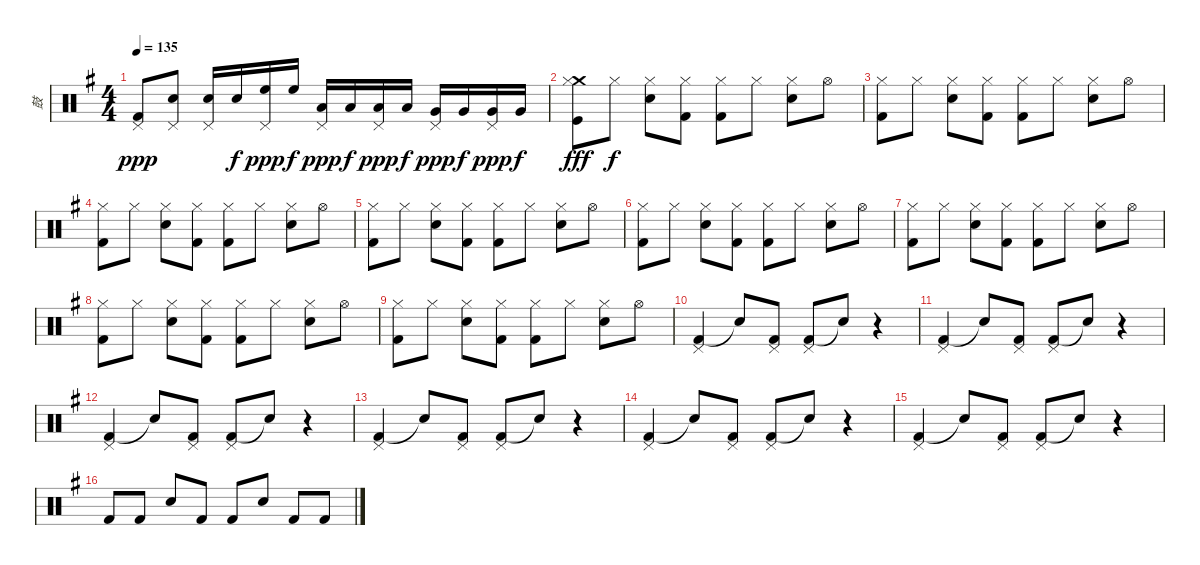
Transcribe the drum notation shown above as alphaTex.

\track ("鼓" "鼓") {instrument percussion}
\staff {score}
\articulation defaults
\ts (4 4)
\tempo 135
\clef neutral
\ks g
("Kick (hit) 2" "Pedal Hi-Hat (hit)").8{dy ppp} ("Snare (hit) 2" "Pedal Hi-Hat (hit)").8 ("Snare (hit) 2" "Pedal Hi-Hat (hit)").16 "Snare (hit) 2".16{dy f} ("High Floor Tom (hit)" "Pedal Hi-Hat (hit)").16{dy ppp} "High Floor Tom (hit)".16{dy f} ("Low Tom (hit)" "Pedal Hi-Hat (hit)").16{dy ppp} "Low Tom (hit)".16{dy f} ("Low Tom (hit)" "Pedal Hi-Hat (hit)").16{dy ppp} "Low Tom (hit)".16{dy f} ("Very Low Tom (hit)" "Pedal Hi-Hat (hit)").16{dy ppp} "Very Low Tom (hit)".16{dy f} ("Very Low Tom (hit)" "Pedal Hi-Hat (hit)").16{dy ppp} "Very Low Tom (hit)".16{dy f} |
("Crash medium (hit)" "Kick (hit)" "Hi-Hat (closed)").8{dy fff} "Hi-Hat (closed)".8{dy f} ("Snare (hit) 2" "Hi-Hat (closed)").8 ("Kick (hit) 2" "Hi-Hat (closed)").8 ("Kick (hit) 2" "Hi-Hat (closed)").8 "Hi-Hat (closed)".8 ("Snare (hit) 2" "Hi-Hat (closed)").8 "Hi-Hat (open)".8 |
("Kick (hit) 2" "Hi-Hat (closed)").8 "Hi-Hat (closed)".8 ("Snare (hit) 2" "Hi-Hat (closed)").8 ("Kick (hit) 2" "Hi-Hat (closed)").8 ("Kick (hit) 2" "Hi-Hat (closed)").8 "Hi-Hat (closed)".8 ("Snare (hit) 2" "Hi-Hat (closed)").8 "Hi-Hat (open)".8 |
("Kick (hit) 2" "Hi-Hat (closed)").8 "Hi-Hat (closed)".8 ("Snare (hit) 2" "Hi-Hat (closed)").8 ("Kick (hit) 2" "Hi-Hat (closed)").8 ("Kick (hit) 2" "Hi-Hat (closed)").8 "Hi-Hat (closed)".8 ("Snare (hit) 2" "Hi-Hat (closed)").8 "Hi-Hat (open)".8 |
("Kick (hit) 2" "Hi-Hat (closed)").8 "Hi-Hat (closed)".8 ("Snare (hit) 2" "Hi-Hat (closed)").8 ("Kick (hit) 2" "Hi-Hat (closed)").8 ("Kick (hit) 2" "Hi-Hat (closed)").8 "Hi-Hat (closed)".8 ("Snare (hit) 2" "Hi-Hat (closed)").8 "Hi-Hat (open)".8 |
("Kick (hit) 2" "Hi-Hat (closed)").8 "Hi-Hat (closed)".8 ("Snare (hit) 2" "Hi-Hat (closed)").8 ("Kick (hit) 2" "Hi-Hat (closed)").8 ("Kick (hit) 2" "Hi-Hat (closed)").8 "Hi-Hat (closed)".8 ("Snare (hit) 2" "Hi-Hat (closed)").8 "Hi-Hat (open)".8 |
("Kick (hit) 2" "Hi-Hat (closed)").8 "Hi-Hat (closed)".8 ("Snare (hit) 2" "Hi-Hat (closed)").8 ("Kick (hit) 2" "Hi-Hat (closed)").8 ("Kick (hit) 2" "Hi-Hat (closed)").8 "Hi-Hat (closed)".8 ("Snare (hit) 2" "Hi-Hat (closed)").8 "Hi-Hat (open)".8 |
("Kick (hit) 2" "Hi-Hat (closed)").8 "Hi-Hat (closed)".8 ("Snare (hit) 2" "Hi-Hat (closed)").8 ("Kick (hit) 2" "Hi-Hat (closed)").8 ("Kick (hit) 2" "Hi-Hat (closed)").8 "Hi-Hat (closed)".8 ("Snare (hit) 2" "Hi-Hat (closed)").8 "Hi-Hat (open)".8 |
("Kick (hit) 2" "Hi-Hat (closed)").8 "Hi-Hat (closed)".8 ("Snare (hit) 2" "Hi-Hat (closed)").8 ("Kick (hit) 2" "Hi-Hat (closed)").8 ("Kick (hit) 2" "Hi-Hat (closed)").8 "Hi-Hat (closed)".8 ("Snare (hit) 2" "Hi-Hat (closed)").8 "Hi-Hat (open)".8 |
("Kick (hit) 2" "Pedal Hi-Hat (hit)").4 "Snare (hit)"{t}.8 ("Kick (hit) 2" "Pedal Hi-Hat (hit)").8 ("Kick (hit) 2" "Pedal Hi-Hat (hit)").8 "Snare (hit)"{t}.8 r.4 |
("Kick (hit) 2" "Pedal Hi-Hat (hit)").4 "Snare (hit)"{t}.8 ("Kick (hit) 2" "Pedal Hi-Hat (hit)").8 ("Kick (hit) 2" "Pedal Hi-Hat (hit)").8 "Snare (hit)"{t}.8 r.4 |
("Kick (hit) 2" "Pedal Hi-Hat (hit)").4 "Snare (hit)"{t}.8 ("Kick (hit) 2" "Pedal Hi-Hat (hit)").8 ("Kick (hit) 2" "Pedal Hi-Hat (hit)").8 "Snare (hit)"{t}.8 r.4 |
("Kick (hit) 2" "Pedal Hi-Hat (hit)").4 "Snare (hit)"{t}.8 ("Kick (hit) 2" "Pedal Hi-Hat (hit)").8 ("Kick (hit) 2" "Pedal Hi-Hat (hit)").8 "Snare (hit)"{t}.8 r.4 |
("Kick (hit) 2" "Pedal Hi-Hat (hit)").4 "Snare (hit)"{t}.8 ("Kick (hit) 2" "Pedal Hi-Hat (hit)").8 ("Kick (hit) 2" "Pedal Hi-Hat (hit)").8 "Snare (hit)"{t}.8 r.4 |
("Kick (hit) 2" "Pedal Hi-Hat (hit)").4 "Snare (hit)"{t}.8 ("Kick (hit) 2" "Pedal Hi-Hat (hit)").8 ("Kick (hit) 2" "Pedal Hi-Hat (hit)").8 "Snare (hit)"{t}.8 r.4 |
"Kick (hit) 2".8 "Kick (hit) 2".8 "Snare (hit) 2".8 "Kick (hit) 2".8 "Kick (hit) 2".8 "Snare (hit) 2".8 "Kick (hit) 2".8 "Kick (hit) 2".8
